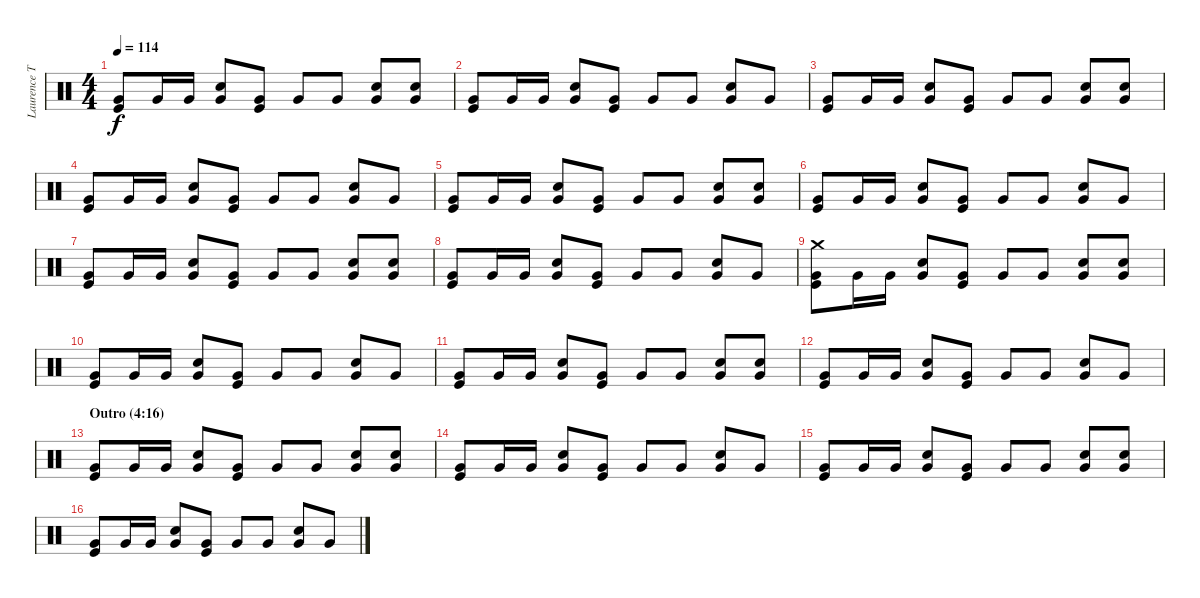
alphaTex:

\track ("Laurence Tolhurst (drums)" "Laurence T") {instrument percussion}
\staff {score}
\articulation defaults
\ts (4 4)
\tempo 114
\clef neutral
\ks c
("Very Low Tom (hit)" "Kick (hit)").8{dy f} "Very Low Tom (hit)".16 "Very Low Tom (hit)".16 ("Very Low Tom (hit)" "Snare (hit) 2").8 ("Very Low Tom (hit)" "Kick (hit)").8 "Very Low Tom (hit)".8 "Very Low Tom (hit)".8 ("Very Low Tom (hit)" "Snare (hit) 2").8 ("Very Low Tom (hit)" "Snare (hit) 2").8 |
("Very Low Tom (hit)" "Kick (hit)").8 "Very Low Tom (hit)".16 "Very Low Tom (hit)".16 ("Very Low Tom (hit)" "Snare (hit) 2").8 ("Very Low Tom (hit)" "Kick (hit)").8 "Very Low Tom (hit)".8 "Very Low Tom (hit)".8 ("Very Low Tom (hit)" "Snare (hit) 2").8 "Very Low Tom (hit)".8 |
("Very Low Tom (hit)" "Kick (hit)").8 "Very Low Tom (hit)".16 "Very Low Tom (hit)".16 ("Very Low Tom (hit)" "Snare (hit) 2").8 ("Very Low Tom (hit)" "Kick (hit)").8 "Very Low Tom (hit)".8 "Very Low Tom (hit)".8 ("Very Low Tom (hit)" "Snare (hit) 2").8 ("Very Low Tom (hit)" "Snare (hit) 2").8 |
("Very Low Tom (hit)" "Kick (hit)").8 "Very Low Tom (hit)".16 "Very Low Tom (hit)".16 ("Very Low Tom (hit)" "Snare (hit) 2").8 ("Very Low Tom (hit)" "Kick (hit)").8 "Very Low Tom (hit)".8 "Very Low Tom (hit)".8 ("Very Low Tom (hit)" "Snare (hit) 2").8 "Very Low Tom (hit)".8 |
("Very Low Tom (hit)" "Kick (hit)").8 "Very Low Tom (hit)".16 "Very Low Tom (hit)".16 ("Very Low Tom (hit)" "Snare (hit) 2").8 ("Very Low Tom (hit)" "Kick (hit)").8 "Very Low Tom (hit)".8 "Very Low Tom (hit)".8 ("Very Low Tom (hit)" "Snare (hit) 2").8 ("Very Low Tom (hit)" "Snare (hit) 2").8 |
("Very Low Tom (hit)" "Kick (hit)").8 "Very Low Tom (hit)".16 "Very Low Tom (hit)".16 ("Very Low Tom (hit)" "Snare (hit) 2").8 ("Very Low Tom (hit)" "Kick (hit)").8 "Very Low Tom (hit)".8 "Very Low Tom (hit)".8 ("Very Low Tom (hit)" "Snare (hit) 2").8 "Very Low Tom (hit)".8 |
("Very Low Tom (hit)" "Kick (hit)").8 "Very Low Tom (hit)".16 "Very Low Tom (hit)".16 ("Very Low Tom (hit)" "Snare (hit) 2").8 ("Very Low Tom (hit)" "Kick (hit)").8 "Very Low Tom (hit)".8 "Very Low Tom (hit)".8 ("Very Low Tom (hit)" "Snare (hit) 2").8 ("Very Low Tom (hit)" "Snare (hit) 2").8 |
("Very Low Tom (hit)" "Kick (hit)").8 "Very Low Tom (hit)".16 "Very Low Tom (hit)".16 ("Very Low Tom (hit)" "Snare (hit) 2").8 ("Very Low Tom (hit)" "Kick (hit)").8 "Very Low Tom (hit)".8 "Very Low Tom (hit)".8 ("Very Low Tom (hit)" "Snare (hit) 2").8 "Very Low Tom (hit)".8 |
("Crash medium (hit)" "Very Low Tom (hit)" "Kick (hit)").8 "Very Low Tom (hit)".16 "Very Low Tom (hit)".16 ("Very Low Tom (hit)" "Snare (hit) 2").8 ("Very Low Tom (hit)" "Kick (hit)").8 "Very Low Tom (hit)".8 "Very Low Tom (hit)".8 ("Very Low Tom (hit)" "Snare (hit) 2").8 ("Very Low Tom (hit)" "Snare (hit) 2").8 |
("Very Low Tom (hit)" "Kick (hit)").8 "Very Low Tom (hit)".16 "Very Low Tom (hit)".16 ("Very Low Tom (hit)" "Snare (hit) 2").8 ("Very Low Tom (hit)" "Kick (hit)").8 "Very Low Tom (hit)".8 "Very Low Tom (hit)".8 ("Very Low Tom (hit)" "Snare (hit) 2").8 "Very Low Tom (hit)".8 |
("Very Low Tom (hit)" "Kick (hit)").8 "Very Low Tom (hit)".16 "Very Low Tom (hit)".16 ("Very Low Tom (hit)" "Snare (hit) 2").8 ("Very Low Tom (hit)" "Kick (hit)").8 "Very Low Tom (hit)".8 "Very Low Tom (hit)".8 ("Very Low Tom (hit)" "Snare (hit) 2").8 ("Very Low Tom (hit)" "Snare (hit) 2").8 |
("Very Low Tom (hit)" "Kick (hit)").8 "Very Low Tom (hit)".16 "Very Low Tom (hit)".16 ("Very Low Tom (hit)" "Snare (hit) 2").8 ("Very Low Tom (hit)" "Kick (hit)").8 "Very Low Tom (hit)".8 "Very Low Tom (hit)".8 ("Very Low Tom (hit)" "Snare (hit) 2").8 "Very Low Tom (hit)".8 |
\section ("" "Outro (4:16)")
("Very Low Tom (hit)" "Kick (hit)").8 "Very Low Tom (hit)".16 "Very Low Tom (hit)".16 ("Very Low Tom (hit)" "Snare (hit) 2").8 ("Very Low Tom (hit)" "Kick (hit)").8 "Very Low Tom (hit)".8 "Very Low Tom (hit)".8 ("Very Low Tom (hit)" "Snare (hit) 2").8 ("Very Low Tom (hit)" "Snare (hit) 2").8 |
("Very Low Tom (hit)" "Kick (hit)").8 "Very Low Tom (hit)".16 "Very Low Tom (hit)".16 ("Very Low Tom (hit)" "Snare (hit) 2").8 ("Very Low Tom (hit)" "Kick (hit)").8 "Very Low Tom (hit)".8 "Very Low Tom (hit)".8 ("Very Low Tom (hit)" "Snare (hit) 2").8 "Very Low Tom (hit)".8 |
("Very Low Tom (hit)" "Kick (hit)").8 "Very Low Tom (hit)".16 "Very Low Tom (hit)".16 ("Very Low Tom (hit)" "Snare (hit) 2").8 ("Very Low Tom (hit)" "Kick (hit)").8 "Very Low Tom (hit)".8 "Very Low Tom (hit)".8 ("Very Low Tom (hit)" "Snare (hit) 2").8 ("Very Low Tom (hit)" "Snare (hit) 2").8 |
("Very Low Tom (hit)" "Kick (hit)").8 "Very Low Tom (hit)".16 "Very Low Tom (hit)".16 ("Very Low Tom (hit)" "Snare (hit) 2").8 ("Very Low Tom (hit)" "Kick (hit)").8 "Very Low Tom (hit)".8 "Very Low Tom (hit)".8 ("Very Low Tom (hit)" "Snare (hit) 2").8 "Very Low Tom (hit)".8
